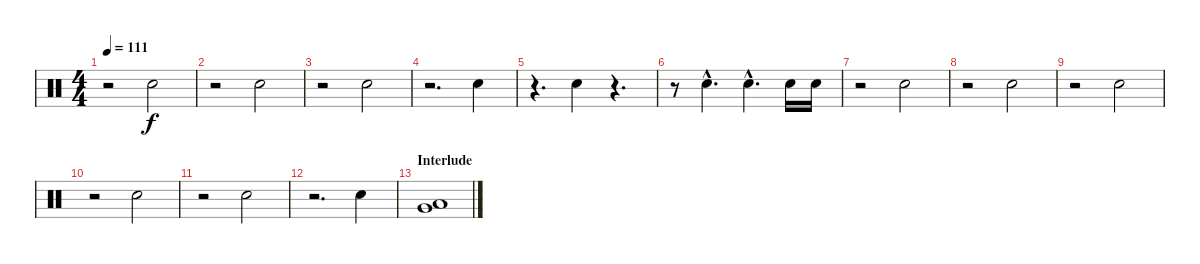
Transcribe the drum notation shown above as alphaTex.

\track "" {instrument percussion}
\staff {score}
\articulation defaults
\ts (4 4)
\tempo 111
\clef neutral
\ks c
r.2{dy f} "Electric Snare (hit)".2 |
r.2 "Electric Snare (hit)".2 |
r.2 "Electric Snare (hit)".2 |
r.2{d} "Electric Snare (hit)".4 |
r.4{d} "Electric Snare (hit)".4 r.4{d} |
r.8 "Electric Snare (hit)"{hac}.4{d} "Electric Snare (hit)"{hac}.4{d} "Electric Snare (hit)".16 "Electric Snare (hit)".16 |
r.2 "Electric Snare (hit)".2 |
r.2 "Electric Snare (hit)".2 |
r.2 "Electric Snare (hit)".2 |
r.2 "Electric Snare (hit)".2 |
r.2 "Electric Snare (hit)".2 |
r.2{d} "Electric Snare (hit)".4 |
\section ("" "Interlude")
("Very Low Tom (hit)" "Low Tom (hit)").1
